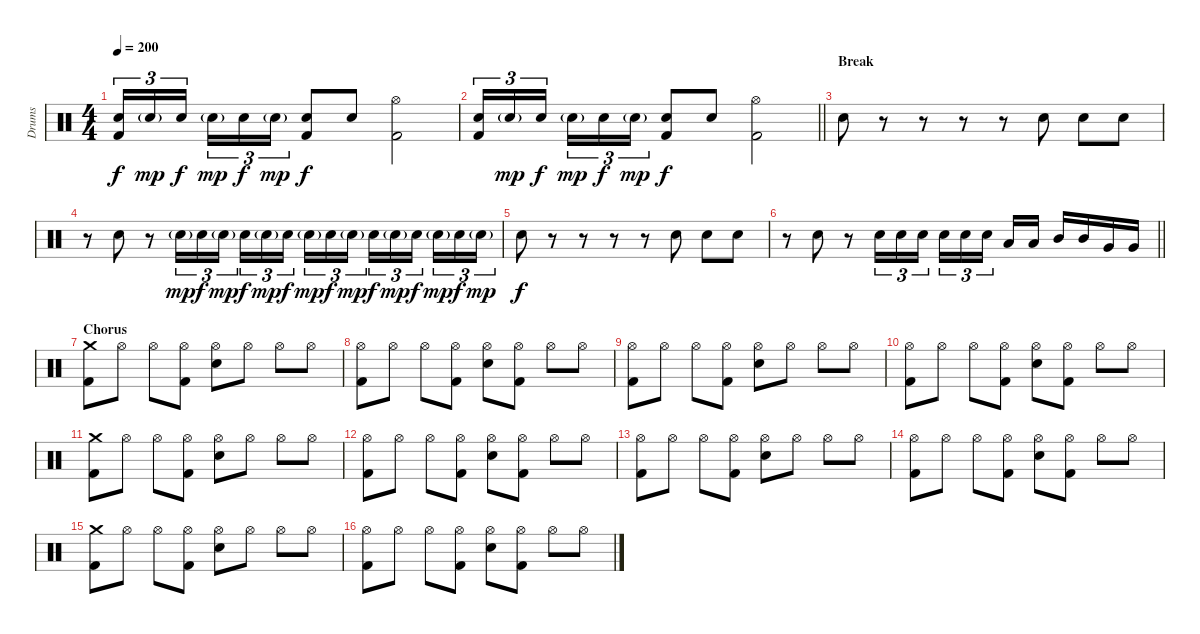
\track ("Drums" "Drums") {instrument percussion}
\staff {score}
\articulation defaults
\ts (4 4)
\tempo 200
\clef neutral
\ks c
("Electric Snare (hit)" "Kick (hit) 2").16{tu (3 2) dy f} "Electric Snare (hit)"{g}.16{tu (3 2) dy mp} "Electric Snare (hit)".16{tu (3 2) dy f beam splitsecondary} "Electric Snare (hit)"{g}.16{tu (3 2) dy mp} "Electric Snare (hit)".16{tu (3 2) dy f} "Electric Snare (hit)"{g}.16{tu (3 2) dy mp} ("Electric Snare (hit)" "Kick (hit) 2").8{dy f} "Electric Snare (hit)".8 ("Hi-Hat (open)" "Kick (hit) 2").2 |
\barLineRight lightlight
("Electric Snare (hit)" "Kick (hit) 2").16{tu (3 2)} "Electric Snare (hit)"{g}.16{tu (3 2) dy mp} "Electric Snare (hit)".16{tu (3 2) dy f beam splitsecondary} "Electric Snare (hit)"{g}.16{tu (3 2) dy mp} "Electric Snare (hit)".16{tu (3 2) dy f} "Electric Snare (hit)"{g}.16{tu (3 2) dy mp} ("Electric Snare (hit)" "Kick (hit) 2").8{dy f} "Electric Snare (hit)".8 ("Hi-Hat (open)" "Kick (hit) 2").2 |
\section ("" "Break")
"Electric Snare (hit)".8 r.8 r.8 r.8 r.8 "Electric Snare (hit)".8 "Electric Snare (hit)".8 "Electric Snare (hit)".8 |
r.8 "Electric Snare (hit)".8 r.8 "Electric Snare (hit)"{g}.16{tu (3 2) dy mp} "Electric Snare (hit)".16{tu (3 2) dy f} "Electric Snare (hit)"{g}.16{tu (3 2) dy mp} "Electric Snare (hit)".16{tu (3 2) dy f} "Electric Snare (hit)"{g}.16{tu (3 2) dy mp} "Electric Snare (hit)".16{tu (3 2) dy f beam splitsecondary} "Electric Snare (hit)"{g}.16{tu (3 2) dy mp} "Electric Snare (hit)".16{tu (3 2) dy f} "Electric Snare (hit)"{g}.16{tu (3 2) dy mp} "Electric Snare (hit)".16{tu (3 2) dy f} "Electric Snare (hit)"{g}.16{tu (3 2) dy mp} "Electric Snare (hit)".16{tu (3 2) dy f beam splitsecondary} "Electric Snare (hit)"{g}.16{tu (3 2) dy mp} "Electric Snare (hit)".16{tu (3 2) dy f} "Electric Snare (hit)"{g}.16{tu (3 2) dy mp} |
"Electric Snare (hit)".8{dy f} r.8 r.8 r.8 r.8 "Electric Snare (hit)".8 "Electric Snare (hit)".8 "Electric Snare (hit)".8 |
\barLineRight lightlight
r.8 "Electric Snare (hit)".8 r.8 "Electric Snare (hit)".16{tu (3 2)} "Electric Snare (hit)".16{tu (3 2)} "Electric Snare (hit)".16{tu (3 2)} "Electric Snare (hit)".16{tu (3 2)} "Electric Snare (hit)".16{tu (3 2)} "Electric Snare (hit)".16{tu (3 2) beam splitsecondary} "Low Tom (hit)".16 "Low Tom (hit)".16 "Mid Tom (hit)".16 "Mid Tom (hit)".16 "Very Low Tom (hit)".16 "Very Low Tom (hit)".16 |
\section ("" "Chorus")
("Crash medium (hit)" "Kick (hit) 2").8 "Hi-Hat (open)".8 "Hi-Hat (open)".8 ("Hi-Hat (open)" "Kick (hit) 2").8 ("Hi-Hat (open)" "Electric Snare (hit)").8 "Hi-Hat (open)".8 "Hi-Hat (open)".8 "Hi-Hat (open)".8 |
("Hi-Hat (open)" "Kick (hit) 2").8 "Hi-Hat (open)".8 "Hi-Hat (open)".8 ("Hi-Hat (open)" "Kick (hit) 2").8 ("Hi-Hat (open)" "Electric Snare (hit)").8 ("Hi-Hat (open)" "Kick (hit) 2").8 "Hi-Hat (open)".8 "Hi-Hat (open)".8 |
("Hi-Hat (open)" "Kick (hit) 2").8 "Hi-Hat (open)".8 "Hi-Hat (open)".8 ("Hi-Hat (open)" "Kick (hit) 2").8 ("Hi-Hat (open)" "Electric Snare (hit)").8 "Hi-Hat (open)".8 "Hi-Hat (open)".8 "Hi-Hat (open)".8 |
("Hi-Hat (open)" "Kick (hit) 2").8 "Hi-Hat (open)".8 "Hi-Hat (open)".8 ("Hi-Hat (open)" "Kick (hit) 2").8 ("Hi-Hat (open)" "Electric Snare (hit)").8 ("Hi-Hat (open)" "Kick (hit) 2").8 "Hi-Hat (open)".8 "Hi-Hat (open)".8 |
("Crash medium (hit)" "Kick (hit) 2").8 "Hi-Hat (open)".8 "Hi-Hat (open)".8 ("Hi-Hat (open)" "Kick (hit) 2").8 ("Hi-Hat (open)" "Electric Snare (hit)").8 "Hi-Hat (open)".8 "Hi-Hat (open)".8 "Hi-Hat (open)".8 |
("Hi-Hat (open)" "Kick (hit) 2").8 "Hi-Hat (open)".8 "Hi-Hat (open)".8 ("Hi-Hat (open)" "Kick (hit) 2").8 ("Hi-Hat (open)" "Electric Snare (hit)").8 ("Hi-Hat (open)" "Kick (hit) 2").8 "Hi-Hat (open)".8 "Hi-Hat (open)".8 |
("Hi-Hat (open)" "Kick (hit) 2").8 "Hi-Hat (open)".8 "Hi-Hat (open)".8 ("Hi-Hat (open)" "Kick (hit) 2").8 ("Hi-Hat (open)" "Electric Snare (hit)").8 "Hi-Hat (open)".8 "Hi-Hat (open)".8 "Hi-Hat (open)".8 |
("Hi-Hat (open)" "Kick (hit) 2").8 "Hi-Hat (open)".8 "Hi-Hat (open)".8 ("Hi-Hat (open)" "Kick (hit) 2").8 ("Hi-Hat (open)" "Electric Snare (hit)").8 ("Hi-Hat (open)" "Kick (hit) 2").8 "Hi-Hat (open)".8 "Hi-Hat (open)".8 |
("Crash medium (hit)" "Kick (hit) 2").8 "Hi-Hat (open)".8 "Hi-Hat (open)".8 ("Hi-Hat (open)" "Kick (hit) 2").8 ("Hi-Hat (open)" "Electric Snare (hit)").8 "Hi-Hat (open)".8 "Hi-Hat (open)".8 "Hi-Hat (open)".8 |
("Hi-Hat (open)" "Kick (hit) 2").8 "Hi-Hat (open)".8 "Hi-Hat (open)".8 ("Hi-Hat (open)" "Kick (hit) 2").8 ("Hi-Hat (open)" "Electric Snare (hit)").8 ("Hi-Hat (open)" "Kick (hit) 2").8 "Hi-Hat (open)".8 "Hi-Hat (open)".8
